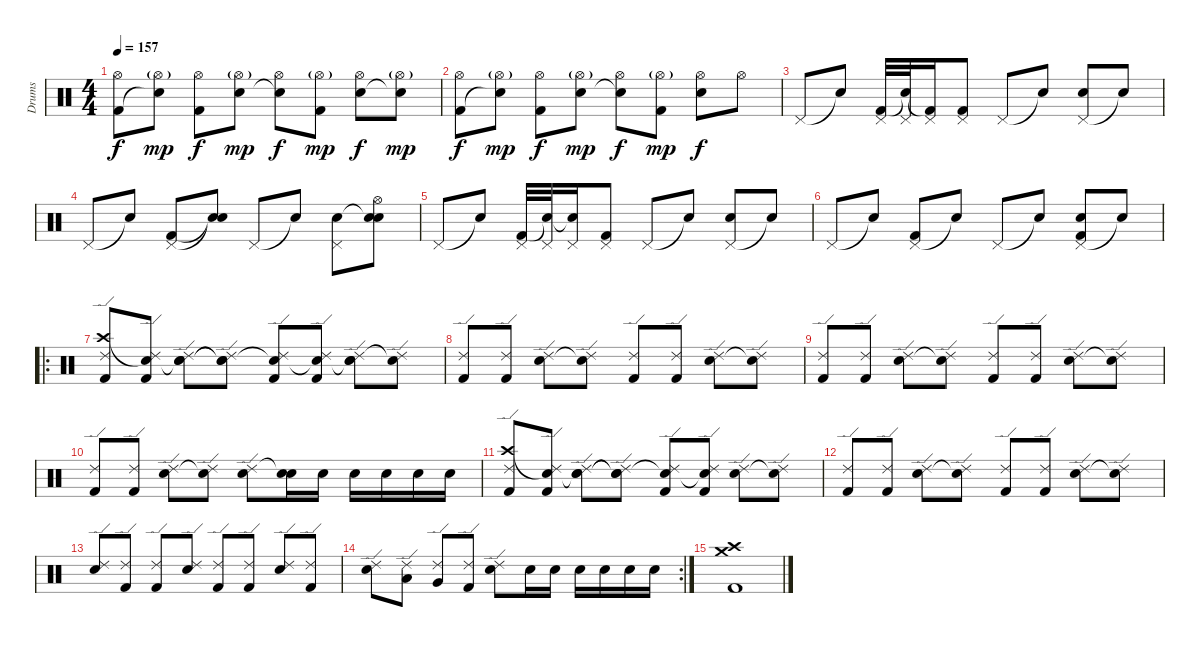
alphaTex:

\track ("Drums" "Drums") {instrument percussion}
\staff {score}
\articulation defaults
\ts (4 4)
\tempo 157
\clef neutral
\ks c
("Hi-Hat (open)" "Kick (hit) 2").8{dy f} ("Hi-Hat (open)"{g} "Snare (hit)"{t}).8{dy mp} ("Hi-Hat (open)" "Kick (hit) 2").8{dy f} ("Hi-Hat (open)"{g} "Electric Snare (hit)").8{dy mp} ("Hi-Hat (open)" "Snare (hit)"{t}).8{dy f} ("Hi-Hat (open)"{g} "Kick (hit) 2").8{dy mp} ("Hi-Hat (open)" "Electric Snare (hit)").8{dy f} ("Hi-Hat (open)"{g} "Snare (hit)"{t}).8{dy mp} |
("Hi-Hat (open)" "Kick (hit) 2").8{dy f} ("Hi-Hat (open)"{g} "Snare (hit)"{t}).8{dy mp} ("Hi-Hat (open)" "Kick (hit) 2").8{dy f} ("Hi-Hat (open)"{g} "Electric Snare (hit)").8{dy mp} ("Hi-Hat (open)" "Snare (hit)"{t}).8{dy f} ("Hi-Hat (open)"{g} "Kick (hit) 2").8{dy mp} ("Hi-Hat (open)" "Electric Snare (hit)").8{dy f} "Hi-Hat (open)".8 |
"Pedal Hi-Hat (hit)".8 "Snare (hit)"{t}.8 ("Pedal Hi-Hat (hit)" "Kick (hit) 2").32 ("Pedal Hi-Hat (hit)" "Snare (hit)"{t}).32 ("Pedal Hi-Hat (hit)" "Kick (hit) 2"{t}).16 ("Pedal Hi-Hat (hit)" "Kick (hit) 2").8 "Pedal Hi-Hat (hit)".8 "Snare (hit)"{t}.8 ("Pedal Hi-Hat (hit)" "Snare (hit) 2").8 "Snare (hit)"{t}.8 |
"Pedal Hi-Hat (hit)".8 "Snare (hit)"{t}.8 ("Pedal Hi-Hat (hit)" "Kick (hit) 2").8 ("Snare (hit)"{t} "Snare (hit)"{t}).8 "Pedal Hi-Hat (hit)".8 "Snare (hit)"{t}.8 ("Pedal Hi-Hat (hit)" "Snare (hit) 2").8 ("Hi-Hat (open)" "Snare (hit)"{t} "Snare (hit)").8 |
"Pedal Hi-Hat (hit)".8 "Snare (hit)"{t}.8 ("Pedal Hi-Hat (hit)" "Kick (hit) 2").32 ("Pedal Hi-Hat (hit)" "Snare (hit)"{t}).32 ("Pedal Hi-Hat (hit)" "Snare (hit)"{t}).16 ("Pedal Hi-Hat (hit)" "Kick (hit) 2").8 "Pedal Hi-Hat (hit)".8 "Snare (hit)"{t}.8 ("Pedal Hi-Hat (hit)" "Snare (hit) 2").8 "Snare (hit)"{t}.8 |
"Pedal Hi-Hat (hit)".8 "Snare (hit)"{t}.8 ("Pedal Hi-Hat (hit)" "Kick (hit) 2").8 "Snare (hit)"{t}.8 "Pedal Hi-Hat (hit)".8 "Snare (hit)"{t}.8 ("Pedal Hi-Hat (hit)" "Snare (hit) 2" "Kick (hit) 2").8 "Snare (hit)"{t}.8 |
\ro
("Crash high (hit)" "Ride (edge) 2" "Kick (hit) 2").8 ("Snare (hit)"{t} "Ride (edge) 2" "Kick (hit) 2").8 ("Snare (hit)"{t} "Ride (edge) 2" "Electric Snare (hit)").8 ("Snare (hit)"{t} "Ride (edge) 2" "Snare (hit)"{t}).8 ("Snare (hit)"{t} "Ride (edge) 2" "Kick (hit) 2").8 ("Snare (hit)"{t} "Ride (edge) 2" "Kick (hit) 2").8 ("Snare (hit)"{t} "Ride (edge) 2" "Electric Snare (hit)").8 ("Ride (edge) 2" "Snare (hit)"{t}).8 |
("Ride (edge) 2" "Kick (hit) 2").8 ("Ride (edge) 2" "Kick (hit) 2").8 ("Ride (edge) 2" "Electric Snare (hit)").8 ("Ride (edge) 2" "Snare (hit)"{t}).8 ("Ride (edge) 2" "Kick (hit) 2").8 ("Ride (edge) 2" "Kick (hit) 2").8 ("Ride (edge) 2" "Electric Snare (hit)").8 ("Ride (edge) 2" "Snare (hit)"{t}).8 |
("Ride (edge) 2" "Kick (hit) 2").8 ("Ride (edge) 2" "Kick (hit) 2").8 ("Ride (edge) 2" "Electric Snare (hit)").8 ("Ride (edge) 2" "Snare (hit)"{t}).8 ("Ride (edge) 2" "Kick (hit) 2").8 ("Ride (edge) 2" "Kick (hit) 2").8 ("Ride (edge) 2" "Electric Snare (hit)").8 ("Ride (edge) 2" "Snare (hit)"{t}).8 |
("Ride (edge) 2" "Kick (hit) 2").8 ("Ride (edge) 2" "Kick (hit) 2").8 ("Ride (edge) 2" "Electric Snare (hit)").8 ("Ride (edge) 2" "Snare (hit)"{t}).8 ("Ride (edge) 2" "Electric Snare (hit)").8 ("Snare (hit)"{t} "Electric Snare (hit)").16 "Electric Snare (hit)".16 "Electric Snare (hit)".16 "Electric Snare (hit)".16 "Electric Snare (hit)".16 "Electric Snare (hit)".16 |
("Crash high (hit)" "Ride (edge) 2" "Kick (hit) 2").8 ("Snare (hit)"{t} "Ride (edge) 2" "Kick (hit) 2").8 ("Snare (hit)"{t} "Ride (edge) 2" "Electric Snare (hit)").8 ("Snare (hit)"{t} "Ride (edge) 2" "Snare (hit)"{t}).8 ("Snare (hit)"{t} "Ride (edge) 2" "Kick (hit) 2").8 ("Snare (hit)"{t} "Ride (edge) 2" "Kick (hit) 2").8 ("Ride (edge) 2" "Electric Snare (hit)").8 ("Ride (edge) 2" "Snare (hit)"{t}).8 |
("Ride (edge) 2" "Kick (hit) 2").8 ("Ride (edge) 2" "Kick (hit) 2").8 ("Ride (edge) 2" "Electric Snare (hit)").8 ("Ride (edge) 2" "Snare (hit)"{t}).8 ("Ride (edge) 2" "Kick (hit) 2").8 ("Ride (edge) 2" "Kick (hit) 2").8 ("Ride (edge) 2" "Electric Snare (hit)").8 ("Ride (edge) 2" "Snare (hit)"{t}).8 |
("Ride (edge) 2" "Electric Snare (hit)").8 ("Ride (edge) 2" "Kick (hit) 2").8 ("Ride (edge) 2" "Kick (hit) 2").8 ("Ride (edge) 2" "Electric Snare (hit)").8 ("Ride (edge) 2" "Kick (hit) 2").8 ("Ride (edge) 2" "Kick (hit) 2").8 ("Ride (edge) 2" "Electric Snare (hit)").8 ("Ride (edge) 2" "Kick (hit) 2").8 |
\rc 2
("Ride (edge) 2" "Electric Snare (hit)").8 ("Ride (edge) 2" "Low Tom (hit)").8 ("Ride (edge) 2" "Very Low Tom (hit)").8 ("Ride (edge) 2" "Kick (hit) 2").8 ("Ride (edge) 2" "Electric Snare (hit)").8 "Electric Snare (hit)".16 "Electric Snare (hit)".16 "Electric Snare (hit)".16 "Electric Snare (hit)".16 "Electric Snare (hit)".16 "Electric Snare (hit)".16 |
("Crash high (hit)" "Crash medium (hit)" "Kick (hit) 2").1
